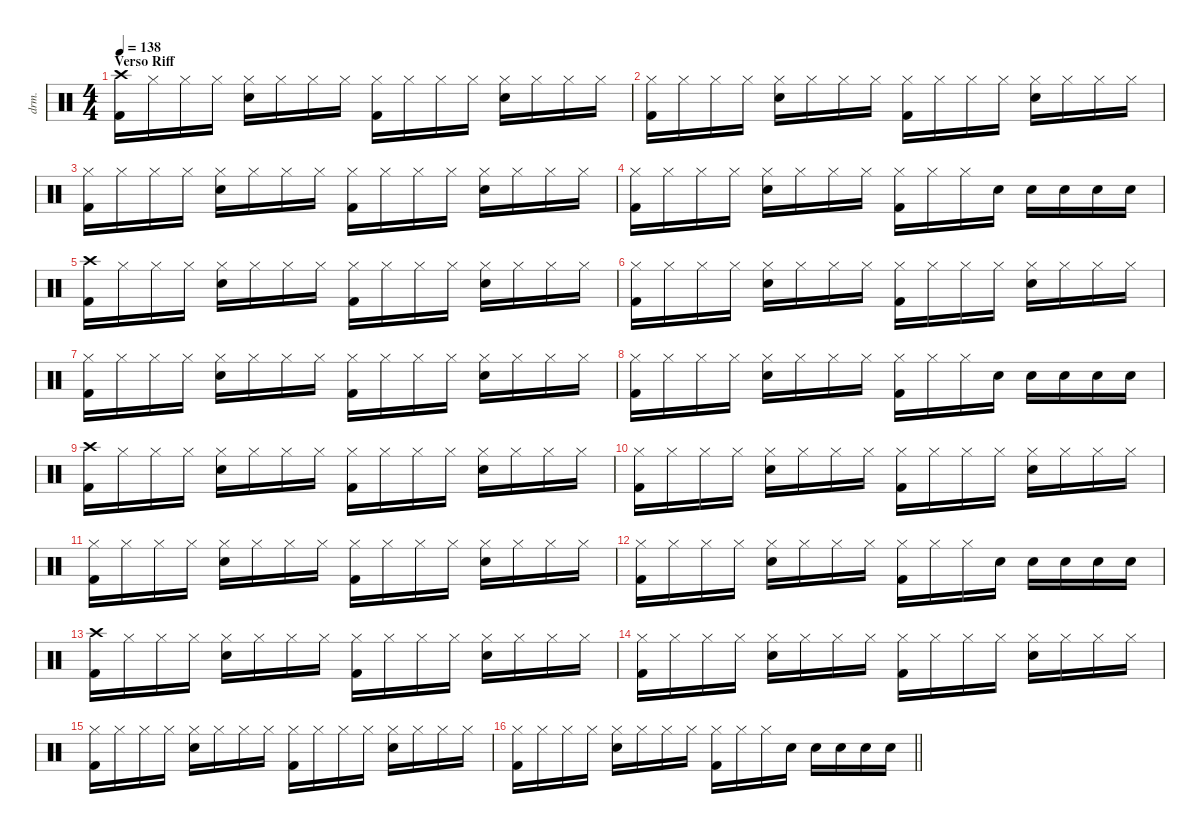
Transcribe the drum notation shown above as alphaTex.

\defaultSystemsLayout 4
\hideDynamics
\bracketExtendMode nobrackets
\otherSystemsTrackNameOrientation horizontal
\track ("Lee Kerslake" "drm.") {instrument percussion}
\staff {score}
\articulation defaults
\ts (4 4)
\section ("" "Verso Riff")
\tempo 138
\clef neutral
\ks c
("Crash high (hit)" "Kick (hit) 2").16{dy f beam Down} "Hi-Hat (closed)".16{beam Down} "Hi-Hat (closed)".16{beam Down} "Hi-Hat (closed)".16{beam Down} ("Hi-Hat (closed)" "Snare (hit) 2").16{beam Down} "Hi-Hat (closed)".16{beam Down} "Hi-Hat (closed)".16{beam Down} "Hi-Hat (closed)".16{beam Down} ("Hi-Hat (closed)" "Kick (hit) 2").16{beam Down} "Hi-Hat (closed)".16{beam Down} "Hi-Hat (closed)".16{beam Down} "Hi-Hat (closed)".16{beam Down} ("Hi-Hat (closed)" "Snare (hit) 2").16{beam Down} "Hi-Hat (closed)".16{beam Down} "Hi-Hat (closed)".16{beam Down} "Hi-Hat (closed)".16{beam Down} |
("Hi-Hat (closed)" "Kick (hit) 2").16{beam Down} "Hi-Hat (closed)".16{beam Down} "Hi-Hat (closed)".16{beam Down} "Hi-Hat (closed)".16{beam Down} ("Hi-Hat (closed)" "Snare (hit) 2").16{beam Down} "Hi-Hat (closed)".16{beam Down} "Hi-Hat (closed)".16{beam Down} "Hi-Hat (closed)".16{beam Down} ("Hi-Hat (closed)" "Kick (hit) 2").16{beam Down} "Hi-Hat (closed)".16{beam Down} "Hi-Hat (closed)".16{beam Down} "Hi-Hat (closed)".16{beam Down} ("Hi-Hat (closed)" "Snare (hit) 2").16{beam Down} "Hi-Hat (closed)".16{beam Down} "Hi-Hat (closed)".16{beam Down} "Hi-Hat (closed)".16{beam Down} |
("Hi-Hat (closed)" "Kick (hit) 2").16{beam Down} "Hi-Hat (closed)".16{beam Down} "Hi-Hat (closed)".16{beam Down} "Hi-Hat (closed)".16{beam Down} ("Hi-Hat (closed)" "Snare (hit) 2").16{beam Down} "Hi-Hat (closed)".16{beam Down} "Hi-Hat (closed)".16{beam Down} "Hi-Hat (closed)".16{beam Down} ("Hi-Hat (closed)" "Kick (hit) 2").16{beam Down} "Hi-Hat (closed)".16{beam Down} "Hi-Hat (closed)".16{beam Down} "Hi-Hat (closed)".16{beam Down} ("Hi-Hat (closed)" "Snare (hit) 2").16{beam Down} "Hi-Hat (closed)".16{beam Down} "Hi-Hat (closed)".16{beam Down} "Hi-Hat (closed)".16{beam Down} |
("Hi-Hat (closed)" "Kick (hit) 2").16{beam Down} "Hi-Hat (closed)".16{beam Down} "Hi-Hat (closed)".16{beam Down} "Hi-Hat (closed)".16{beam Down} ("Hi-Hat (closed)" "Snare (hit) 2").16{beam Down} "Hi-Hat (closed)".16{beam Down} "Hi-Hat (closed)".16{beam Down} "Hi-Hat (closed)".16{beam Down} ("Hi-Hat (closed)" "Kick (hit) 2").16{beam Down} "Hi-Hat (closed)".16{beam Down} "Hi-Hat (closed)".16{beam Down} "Snare (hit) 2".16{beam Down} "Snare (hit) 2".16{beam Down} "Snare (hit) 2".16{beam Down} "Snare (hit) 2".16{beam Down} "Snare (hit) 2".16{beam Down} |
("Crash high (hit)" "Kick (hit) 2").16{beam Down} "Hi-Hat (closed)".16{beam Down} "Hi-Hat (closed)".16{beam Down} "Hi-Hat (closed)".16{beam Down} ("Hi-Hat (closed)" "Snare (hit) 2").16{beam Down} "Hi-Hat (closed)".16{beam Down} "Hi-Hat (closed)".16{beam Down} "Hi-Hat (closed)".16{beam Down} ("Hi-Hat (closed)" "Kick (hit) 2").16{beam Down} "Hi-Hat (closed)".16{beam Down} "Hi-Hat (closed)".16{beam Down} "Hi-Hat (closed)".16{beam Down} ("Hi-Hat (closed)" "Snare (hit) 2").16{beam Down} "Hi-Hat (closed)".16{beam Down} "Hi-Hat (closed)".16{beam Down} "Hi-Hat (closed)".16{beam Down} |
("Hi-Hat (closed)" "Kick (hit) 2").16{beam Down} "Hi-Hat (closed)".16{beam Down} "Hi-Hat (closed)".16{beam Down} "Hi-Hat (closed)".16{beam Down} ("Hi-Hat (closed)" "Snare (hit) 2").16{beam Down} "Hi-Hat (closed)".16{beam Down} "Hi-Hat (closed)".16{beam Down} "Hi-Hat (closed)".16{beam Down} ("Hi-Hat (closed)" "Kick (hit) 2").16{beam Down} "Hi-Hat (closed)".16{beam Down} "Hi-Hat (closed)".16{beam Down} "Hi-Hat (closed)".16{beam Down} ("Hi-Hat (closed)" "Snare (hit) 2").16{beam Down} "Hi-Hat (closed)".16{beam Down} "Hi-Hat (closed)".16{beam Down} "Hi-Hat (closed)".16{beam Down} |
("Hi-Hat (closed)" "Kick (hit) 2").16{beam Down} "Hi-Hat (closed)".16{beam Down} "Hi-Hat (closed)".16{beam Down} "Hi-Hat (closed)".16{beam Down} ("Hi-Hat (closed)" "Snare (hit) 2").16{beam Down} "Hi-Hat (closed)".16{beam Down} "Hi-Hat (closed)".16{beam Down} "Hi-Hat (closed)".16{beam Down} ("Hi-Hat (closed)" "Kick (hit) 2").16{beam Down} "Hi-Hat (closed)".16{beam Down} "Hi-Hat (closed)".16{beam Down} "Hi-Hat (closed)".16{beam Down} ("Hi-Hat (closed)" "Snare (hit) 2").16{beam Down} "Hi-Hat (closed)".16{beam Down} "Hi-Hat (closed)".16{beam Down} "Hi-Hat (closed)".16{beam Down} |
("Hi-Hat (closed)" "Kick (hit) 2").16{beam Down} "Hi-Hat (closed)".16{beam Down} "Hi-Hat (closed)".16{beam Down} "Hi-Hat (closed)".16{beam Down} ("Hi-Hat (closed)" "Snare (hit) 2").16{beam Down} "Hi-Hat (closed)".16{beam Down} "Hi-Hat (closed)".16{beam Down} "Hi-Hat (closed)".16{beam Down} ("Hi-Hat (closed)" "Kick (hit) 2").16{beam Down} "Hi-Hat (closed)".16{beam Down} "Hi-Hat (closed)".16{beam Down} "Snare (hit) 2".16{beam Down} "Snare (hit) 2".16{beam Down} "Snare (hit) 2".16{beam Down} "Snare (hit) 2".16{beam Down} "Snare (hit) 2".16{beam Down} |
("Crash high (hit)" "Kick (hit) 2").16{beam Down} "Hi-Hat (closed)".16{beam Down} "Hi-Hat (closed)".16{beam Down} "Hi-Hat (closed)".16{beam Down} ("Hi-Hat (closed)" "Snare (hit) 2").16{beam Down} "Hi-Hat (closed)".16{beam Down} "Hi-Hat (closed)".16{beam Down} "Hi-Hat (closed)".16{beam Down} ("Hi-Hat (closed)" "Kick (hit) 2").16{beam Down} "Hi-Hat (closed)".16{beam Down} "Hi-Hat (closed)".16{beam Down} "Hi-Hat (closed)".16{beam Down} ("Hi-Hat (closed)" "Snare (hit) 2").16{beam Down} "Hi-Hat (closed)".16{beam Down} "Hi-Hat (closed)".16{beam Down} "Hi-Hat (closed)".16{beam Down} |
("Hi-Hat (closed)" "Kick (hit) 2").16{beam Down} "Hi-Hat (closed)".16{beam Down} "Hi-Hat (closed)".16{beam Down} "Hi-Hat (closed)".16{beam Down} ("Hi-Hat (closed)" "Snare (hit) 2").16{beam Down} "Hi-Hat (closed)".16{beam Down} "Hi-Hat (closed)".16{beam Down} "Hi-Hat (closed)".16{beam Down} ("Hi-Hat (closed)" "Kick (hit) 2").16{beam Down} "Hi-Hat (closed)".16{beam Down} "Hi-Hat (closed)".16{beam Down} "Hi-Hat (closed)".16{beam Down} ("Hi-Hat (closed)" "Snare (hit) 2").16{beam Down} "Hi-Hat (closed)".16{beam Down} "Hi-Hat (closed)".16{beam Down} "Hi-Hat (closed)".16{beam Down} |
("Hi-Hat (closed)" "Kick (hit) 2").16{beam Down} "Hi-Hat (closed)".16{beam Down} "Hi-Hat (closed)".16{beam Down} "Hi-Hat (closed)".16{beam Down} ("Hi-Hat (closed)" "Snare (hit) 2").16{beam Down} "Hi-Hat (closed)".16{beam Down} "Hi-Hat (closed)".16{beam Down} "Hi-Hat (closed)".16{beam Down} ("Hi-Hat (closed)" "Kick (hit) 2").16{beam Down} "Hi-Hat (closed)".16{beam Down} "Hi-Hat (closed)".16{beam Down} "Hi-Hat (closed)".16{beam Down} ("Hi-Hat (closed)" "Snare (hit) 2").16{beam Down} "Hi-Hat (closed)".16{beam Down} "Hi-Hat (closed)".16{beam Down} "Hi-Hat (closed)".16{beam Down} |
("Hi-Hat (closed)" "Kick (hit) 2").16{beam Down} "Hi-Hat (closed)".16{beam Down} "Hi-Hat (closed)".16{beam Down} "Hi-Hat (closed)".16{beam Down} ("Hi-Hat (closed)" "Snare (hit) 2").16{beam Down} "Hi-Hat (closed)".16{beam Down} "Hi-Hat (closed)".16{beam Down} "Hi-Hat (closed)".16{beam Down} ("Hi-Hat (closed)" "Kick (hit) 2").16{beam Down} "Hi-Hat (closed)".16{beam Down} "Hi-Hat (closed)".16{beam Down} "Snare (hit) 2".16{beam Down} "Snare (hit) 2".16{beam Down} "Snare (hit) 2".16{beam Down} "Snare (hit) 2".16{beam Down} "Snare (hit) 2".16{beam Down} |
("Crash high (hit)" "Kick (hit) 2").16{beam Down} "Hi-Hat (closed)".16{beam Down} "Hi-Hat (closed)".16{beam Down} "Hi-Hat (closed)".16{beam Down} ("Hi-Hat (closed)" "Snare (hit) 2").16{beam Down} "Hi-Hat (closed)".16{beam Down} "Hi-Hat (closed)".16{beam Down} "Hi-Hat (closed)".16{beam Down} ("Hi-Hat (closed)" "Kick (hit) 2").16{beam Down} "Hi-Hat (closed)".16{beam Down} "Hi-Hat (closed)".16{beam Down} "Hi-Hat (closed)".16{beam Down} ("Hi-Hat (closed)" "Snare (hit) 2").16{beam Down} "Hi-Hat (closed)".16{beam Down} "Hi-Hat (closed)".16{beam Down} "Hi-Hat (closed)".16{beam Down} |
("Hi-Hat (closed)" "Kick (hit) 2").16{beam Down} "Hi-Hat (closed)".16{beam Down} "Hi-Hat (closed)".16{beam Down} "Hi-Hat (closed)".16{beam Down} ("Hi-Hat (closed)" "Snare (hit) 2").16{beam Down} "Hi-Hat (closed)".16{beam Down} "Hi-Hat (closed)".16{beam Down} "Hi-Hat (closed)".16{beam Down} ("Hi-Hat (closed)" "Kick (hit) 2").16{beam Down} "Hi-Hat (closed)".16{beam Down} "Hi-Hat (closed)".16{beam Down} "Hi-Hat (closed)".16{beam Down} ("Hi-Hat (closed)" "Snare (hit) 2").16{beam Down} "Hi-Hat (closed)".16{beam Down} "Hi-Hat (closed)".16{beam Down} "Hi-Hat (closed)".16{beam Down} |
("Hi-Hat (closed)" "Kick (hit) 2").16{beam Down} "Hi-Hat (closed)".16{beam Down} "Hi-Hat (closed)".16{beam Down} "Hi-Hat (closed)".16{beam Down} ("Hi-Hat (closed)" "Snare (hit) 2").16{beam Down} "Hi-Hat (closed)".16{beam Down} "Hi-Hat (closed)".16{beam Down} "Hi-Hat (closed)".16{beam Down} ("Hi-Hat (closed)" "Kick (hit) 2").16{beam Down} "Hi-Hat (closed)".16{beam Down} "Hi-Hat (closed)".16{beam Down} "Hi-Hat (closed)".16{beam Down} ("Hi-Hat (closed)" "Snare (hit) 2").16{beam Down} "Hi-Hat (closed)".16{beam Down} "Hi-Hat (closed)".16{beam Down} "Hi-Hat (closed)".16{beam Down} |
\barLineRight lightlight
("Hi-Hat (closed)" "Kick (hit) 2").16{beam Down} "Hi-Hat (closed)".16{beam Down} "Hi-Hat (closed)".16{beam Down} "Hi-Hat (closed)".16{beam Down} ("Hi-Hat (closed)" "Snare (hit) 2").16{beam Down} "Hi-Hat (closed)".16{beam Down} "Hi-Hat (closed)".16{beam Down} "Hi-Hat (closed)".16{beam Down} ("Hi-Hat (closed)" "Kick (hit) 2").16{beam Down} "Hi-Hat (closed)".16{beam Down} "Hi-Hat (closed)".16{beam Down} "Snare (hit) 2".16{beam Down} "Snare (hit) 2".16{beam Down} "Snare (hit) 2".16{beam Down} "Snare (hit) 2".16{beam Down} "Snare (hit) 2".16{beam Down}
